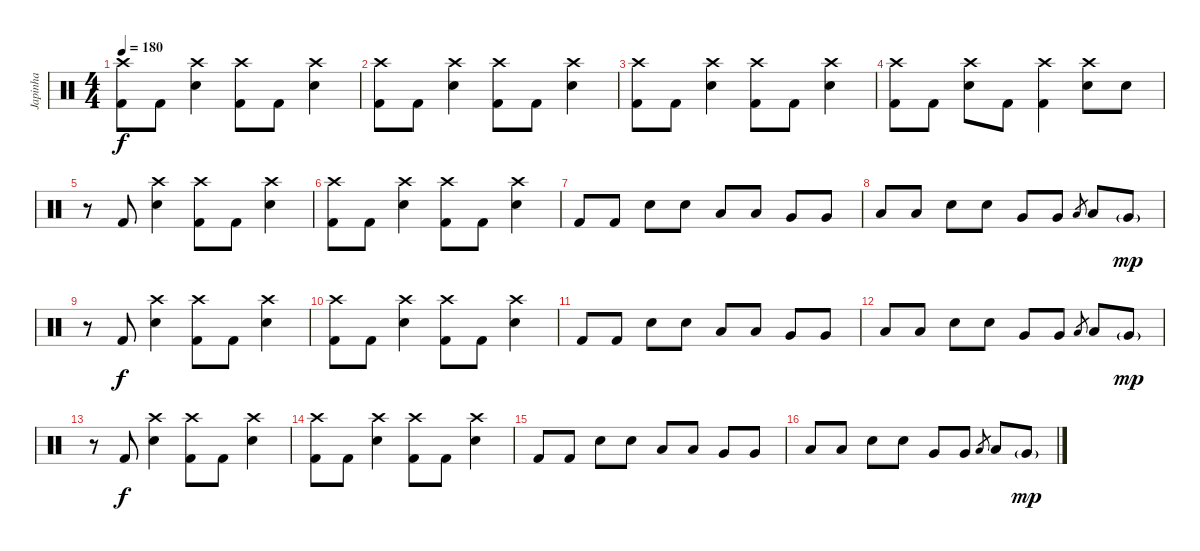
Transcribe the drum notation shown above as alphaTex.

\track ("Japinha" "Japinha") {instrument percussion}
\staff {score}
\articulation defaults
\ts (4 4)
\tempo 180
\clef neutral
\ks c
("Kick (hit) 2" "Crash high (hit)").8{dy f} "Kick (hit) 2".8 ("Snare (hit) 2" "Crash high (hit)").4 ("Kick (hit) 2" "Crash high (hit)").8 "Kick (hit) 2".8 ("Snare (hit) 2" "Crash high (hit)").4 |
("Kick (hit) 2" "Crash high (hit)").8 "Kick (hit) 2".8 ("Snare (hit) 2" "Crash high (hit)").4 ("Kick (hit) 2" "Crash high (hit)").8 "Kick (hit) 2".8 ("Snare (hit) 2" "Crash high (hit)").4 |
("Kick (hit) 2" "Crash high (hit)").8 "Kick (hit) 2".8 ("Snare (hit) 2" "Crash high (hit)").4 ("Kick (hit) 2" "Crash high (hit)").8 "Kick (hit) 2".8 ("Snare (hit) 2" "Crash high (hit)").4 |
("Kick (hit) 2" "Crash high (hit)").8 "Kick (hit) 2".8 ("Snare (hit) 2" "Crash high (hit)").8 "Kick (hit) 2".8 ("Kick (hit) 2" "Crash high (hit)").4 ("Snare (hit) 2" "Crash high (hit)").8 "Snare (hit) 2".8 |
r.8 "Kick (hit) 2".8 ("Snare (hit) 2" "Crash high (hit)").4 ("Kick (hit) 2" "Crash high (hit)").8 "Kick (hit) 2".8 ("Snare (hit) 2" "Crash high (hit)").4 |
("Kick (hit) 2" "Crash high (hit)").8 "Kick (hit) 2".8 ("Snare (hit) 2" "Crash high (hit)").4 ("Kick (hit) 2" "Crash high (hit)").8 "Kick (hit) 2".8 ("Snare (hit) 2" "Crash high (hit)").4 |
"Kick (hit) 2".8 "Kick (hit) 2".8 "Snare (hit) 2".8 "Snare (hit) 2".8 "Low Tom (hit)".8 "Low Tom (hit)".8 "Very Low Tom (hit)".8 "Very Low Tom (hit)".8 |
"Low Tom (hit)".8 "Low Tom (hit)".8 "Snare (hit) 2".8 "Snare (hit) 2".8 "Very Low Tom (hit)".8 "Very Low Tom (hit)".8 "Low Tom (hit)".8{gr} "Low Tom (hit)".8 "Very Low Tom (hit)"{g}.8{dy mp} |
r.8 "Kick (hit) 2".8{dy f} ("Snare (hit) 2" "Crash high (hit)").4 ("Kick (hit) 2" "Crash high (hit)").8 "Kick (hit) 2".8 ("Snare (hit) 2" "Crash high (hit)").4 |
("Kick (hit) 2" "Crash high (hit)").8 "Kick (hit) 2".8 ("Snare (hit) 2" "Crash high (hit)").4 ("Kick (hit) 2" "Crash high (hit)").8 "Kick (hit) 2".8 ("Snare (hit) 2" "Crash high (hit)").4 |
"Kick (hit) 2".8 "Kick (hit) 2".8 "Snare (hit) 2".8 "Snare (hit) 2".8 "Low Tom (hit)".8 "Low Tom (hit)".8 "Very Low Tom (hit)".8 "Very Low Tom (hit)".8 |
"Low Tom (hit)".8 "Low Tom (hit)".8 "Snare (hit) 2".8 "Snare (hit) 2".8 "Very Low Tom (hit)".8 "Very Low Tom (hit)".8 "Low Tom (hit)".8{gr} "Low Tom (hit)".8 "Very Low Tom (hit)"{g}.8{dy mp} |
r.8 "Kick (hit) 2".8{dy f} ("Snare (hit) 2" "Crash high (hit)").4 ("Kick (hit) 2" "Crash high (hit)").8 "Kick (hit) 2".8 ("Snare (hit) 2" "Crash high (hit)").4 |
("Kick (hit) 2" "Crash high (hit)").8 "Kick (hit) 2".8 ("Snare (hit) 2" "Crash high (hit)").4 ("Kick (hit) 2" "Crash high (hit)").8 "Kick (hit) 2".8 ("Snare (hit) 2" "Crash high (hit)").4 |
"Kick (hit) 2".8 "Kick (hit) 2".8 "Snare (hit) 2".8 "Snare (hit) 2".8 "Low Tom (hit)".8 "Low Tom (hit)".8 "Very Low Tom (hit)".8 "Very Low Tom (hit)".8 |
"Low Tom (hit)".8 "Low Tom (hit)".8 "Snare (hit) 2".8 "Snare (hit) 2".8 "Very Low Tom (hit)".8 "Very Low Tom (hit)".8 "Low Tom (hit)".8{gr} "Low Tom (hit)".8 "Very Low Tom (hit)"{g}.8{dy mp}
